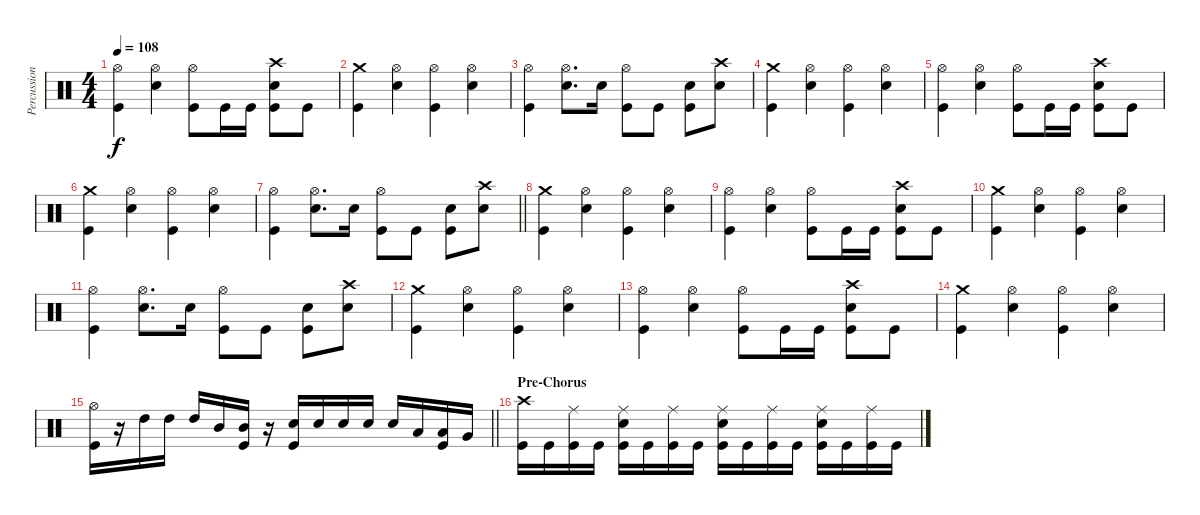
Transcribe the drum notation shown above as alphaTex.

\track ("Percussions" "Percussion") {instrument percussion}
\staff {score}
\articulation defaults
\ts (4 4)
\tempo 108
\clef neutral
\ks c
("Hi-Hat (open)" "Kick (hit)").4{dy f} ("Hi-Hat (open)" "Electric Snare (hit)").4 ("Hi-Hat (open)" "Kick (hit)").8 "Kick (hit)".16 "Kick (hit)".16 ("Crash high (hit)" "Electric Snare (hit)" "Kick (hit)").8 "Kick (hit)".8 |
("Crash medium (hit)" "Kick (hit)").4 ("Hi-Hat (open)" "Electric Snare (hit)").4 ("Hi-Hat (open)" "Kick (hit)").4 ("Hi-Hat (open)" "Electric Snare (hit)").4 |
("Hi-Hat (open)" "Kick (hit)").4 ("Hi-Hat (open)" "Electric Snare (hit)").8{d} "Electric Snare (hit)".16 ("Hi-Hat (open)" "Kick (hit)").8 "Kick (hit)".8 ("Electric Snare (hit)" "Kick (hit)").8 ("Crash high (hit)" "Electric Snare (hit)").8 |
("Crash medium (hit)" "Kick (hit)").4 ("Hi-Hat (open)" "Electric Snare (hit)").4 ("Hi-Hat (open)" "Kick (hit)").4 ("Hi-Hat (open)" "Electric Snare (hit)").4 |
("Hi-Hat (open)" "Kick (hit)").4 ("Hi-Hat (open)" "Electric Snare (hit)").4 ("Hi-Hat (open)" "Kick (hit)").8 "Kick (hit)".16 "Kick (hit)".16 ("Crash high (hit)" "Electric Snare (hit)" "Kick (hit)").8 "Kick (hit)".8 |
("Crash medium (hit)" "Kick (hit)").4 ("Hi-Hat (open)" "Electric Snare (hit)").4 ("Hi-Hat (open)" "Kick (hit)").4 ("Hi-Hat (open)" "Electric Snare (hit)").4 |
\barLineRight lightlight
("Hi-Hat (open)" "Kick (hit)").4 ("Hi-Hat (open)" "Electric Snare (hit)").8{d} "Electric Snare (hit)".16 ("Hi-Hat (open)" "Kick (hit)").8 "Kick (hit)".8 ("Electric Snare (hit)" "Kick (hit)").8 ("Crash high (hit)" "Electric Snare (hit)").8 |
("Crash medium (hit)" "Kick (hit)").4 ("Hi-Hat (open)" "Electric Snare (hit)").4 ("Hi-Hat (open)" "Kick (hit)").4 ("Hi-Hat (open)" "Electric Snare (hit)").4 |
("Hi-Hat (open)" "Kick (hit)").4 ("Hi-Hat (open)" "Electric Snare (hit)").4 ("Hi-Hat (open)" "Kick (hit)").8 "Kick (hit)".16 "Kick (hit)".16 ("Crash high (hit)" "Electric Snare (hit)" "Kick (hit)").8 "Kick (hit)".8 |
("Crash medium (hit)" "Kick (hit)").4 ("Hi-Hat (open)" "Electric Snare (hit)").4 ("Hi-Hat (open)" "Kick (hit)").4 ("Hi-Hat (open)" "Electric Snare (hit)").4 |
("Hi-Hat (open)" "Kick (hit)").4 ("Hi-Hat (open)" "Electric Snare (hit)").8{d} "Electric Snare (hit)".16 ("Hi-Hat (open)" "Kick (hit)").8 "Kick (hit)".8 ("Electric Snare (hit)" "Kick (hit)").8 ("Crash high (hit)" "Electric Snare (hit)").8 |
("Crash medium (hit)" "Kick (hit)").4 ("Hi-Hat (open)" "Electric Snare (hit)").4 ("Hi-Hat (open)" "Kick (hit)").4 ("Hi-Hat (open)" "Electric Snare (hit)").4 |
("Hi-Hat (open)" "Kick (hit)").4 ("Hi-Hat (open)" "Electric Snare (hit)").4 ("Hi-Hat (open)" "Kick (hit)").8 "Kick (hit)".16 "Kick (hit)".16 ("Crash high (hit)" "Electric Snare (hit)" "Kick (hit)").8 "Kick (hit)".8 |
("Crash medium (hit)" "Kick (hit)").4 ("Hi-Hat (open)" "Electric Snare (hit)").4 ("Hi-Hat (open)" "Kick (hit)").4 ("Hi-Hat (open)" "Electric Snare (hit)").4 |
\barLineRight lightlight
("Hi-Hat (open)" "Kick (hit)").16 r.16 "High Tom (hit)".16 "High Tom (hit)".16 "High Tom (hit)".16 "Mid Tom (hit)".16 ("Mid Tom (hit)" "Kick (hit)").16 r.16 ("Electric Snare (hit)" "Kick (hit)").16 "Electric Snare (hit)".16 "Electric Snare (hit)".16 "Electric Snare (hit)".16 "Electric Snare (hit)".16 "Low Tom (hit)".16 ("Low Tom (hit)" "Kick (hit)").16 "Very Low Tom (hit)".16 |
\section ("" "Pre-Chorus")
("Crash high (hit)" "Kick (hit)").16 "Kick (hit)".16 ("Ride (middle)" "Kick (hit)").16 "Kick (hit)".16 ("Ride (middle)" "Electric Snare (hit)" "Kick (hit)").16 "Kick (hit)".16 ("Ride (middle)" "Kick (hit)").16 "Kick (hit)".16 ("Ride (middle)" "Electric Snare (hit)" "Kick (hit)").16 "Kick (hit)".16 ("Ride (middle)" "Kick (hit)").16 "Kick (hit)".16 ("Ride (middle)" "Electric Snare (hit)" "Kick (hit)").16 "Kick (hit)".16 ("Ride (middle)" "Kick (hit)").16 "Kick (hit)".16
